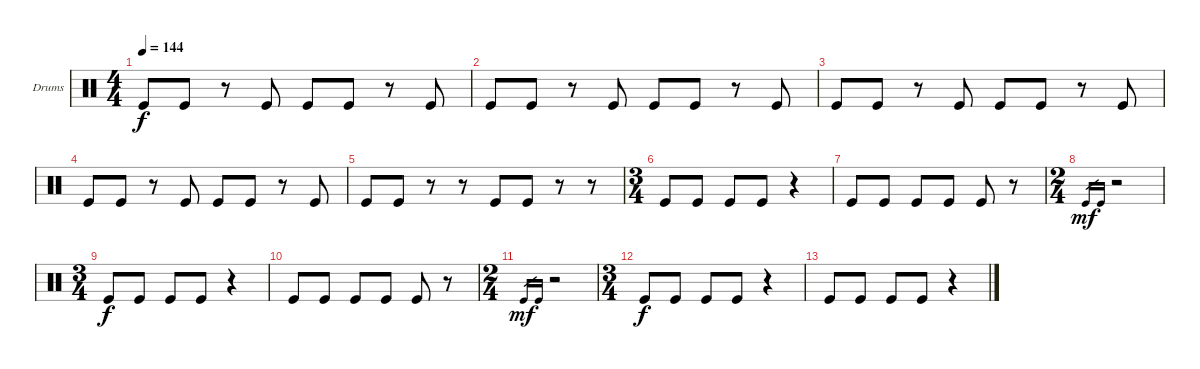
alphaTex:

\defaultSystemsLayout 4
\bracketExtendMode groupsimilarinstruments
\firstSystemTrackNameOrientation horizontal
\otherSystemsTrackNameOrientation horizontal
\track ("Kick" "Drums") {instrument percussion}
\staff {score}
\articulation defaults
\ts (4 4)
\tempo 144
\clef neutral
\ks c "Kick (hit)".8{dy f} "Kick (hit)".8
r.8 "Kick (hit)".8 "Kick (hit)".8 "Kick (hit)".8 r.8 "Kick (hit)".8 |
"Kick (hit)".8 "Kick (hit)".8 r.8 "Kick (hit)".8 "Kick (hit)".8 "Kick (hit)".8 r.8 "Kick (hit)".8 |
"Kick (hit)".8 "Kick (hit)".8 r.8 "Kick (hit)".8 "Kick (hit)".8 "Kick (hit)".8 r.8 "Kick (hit)".8 |
"Kick (hit)".8 "Kick (hit)".8 r.8 "Kick (hit)".8 "Kick (hit)".8 "Kick (hit)".8 r.8 "Kick (hit)".8 |
"Kick (hit)".8 "Kick (hit)".8 r.8 r.8 "Kick (hit)".8 "Kick (hit)".8 r.8 r.8 |
\ts (3 4)
"Kick (hit)".8 "Kick (hit)".8 "Kick (hit)".8 "Kick (hit)".8 r.4 |
"Kick (hit)".8 "Kick (hit)".8 "Kick (hit)".8 "Kick (hit)".8 "Kick (hit)".8 r.8 |
\ts (2 4)
"Kick (hit)".16{gr dy mf} "Kick (hit)".16{gr} r.2 |
\ts (3 4)
"Kick (hit)".8{dy f} "Kick (hit)".8 "Kick (hit)".8 "Kick (hit)".8 r.4 |
"Kick (hit)".8 "Kick (hit)".8 "Kick (hit)".8 "Kick (hit)".8 "Kick (hit)".8 r.8 |
\ts (2 4)
"Kick (hit)".16{gr dy mf} "Kick (hit)".16{gr} r.2 |
\ts (3 4)
"Kick (hit)".8{dy f} "Kick (hit)".8 "Kick (hit)".8 "Kick (hit)".8 r.4 |
"Kick (hit)".8 "Kick (hit)".8 "Kick (hit)".8 "Kick (hit)".8 r.4
